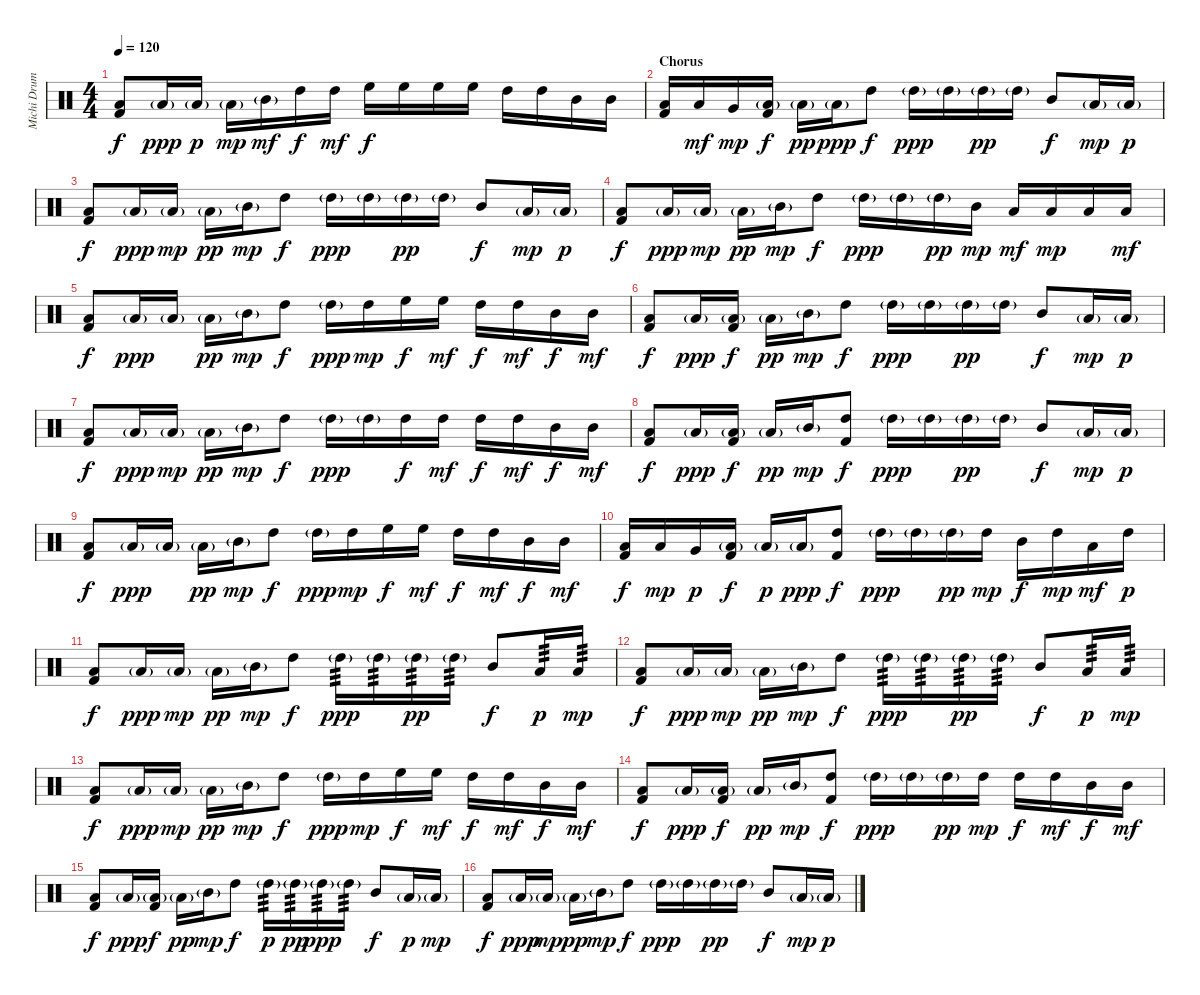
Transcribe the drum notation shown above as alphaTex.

\track ("Michi Drums" "Michi Drum") {instrument percussion}
\staff {score}
\articulation defaults
\ts (4 4)
\tempo 120
\clef neutral
\ks c
("Low Floor Tom (hit)" "Kick (hit) 2").8{dy f} "Low Floor Tom (hit)"{g}.16{dy ppp} "Low Tom (hit)"{g}.16{dy p} "Low Tom (hit)"{g}.16{dy mp} "Mid Tom (hit)"{g}.16{dy mf} "High Tom (hit)".16{dy f} "High Tom (hit)".16{dy mf} "High Floor Tom (hit)".16{dy f} "High Floor Tom (hit)".16 "High Floor Tom (hit)".16 "High Floor Tom (hit)".16 "High Tom (hit)".16 "High Tom (hit)".16 "Mid Tom (hit)".16 "Mid Tom (hit)".16 |
\section ("" "Chorus")
("Low Tom (hit)" "Kick (hit) 2").16 "Low Tom (hit)".16{dy mf} "Very Low Tom (hit)".16{dy mp} ("Low Floor Tom (hit)"{g} "Kick (hit) 2").16{dy f} "Low Floor Tom (hit)"{g}.16{dy pp} "Low Floor Tom (hit)"{g}.16{dy ppp} "High Tom (hit)".8{dy f} "High Tom (hit)"{g}.16{dy ppp} "High Tom (hit)"{g}.16 "High Tom (hit)"{g}.16{dy pp} "High Tom (hit)"{g}.16 "Mid Tom (hit)".8{dy f} "Low Tom (hit)"{g}.16{dy mp} "Low Tom (hit)"{g}.16{dy p} |
("Low Floor Tom (hit)" "Kick (hit) 2").8{dy f} "Low Floor Tom (hit)"{g}.16{dy ppp} "Low Tom (hit)"{g}.16{dy mp} "Low Tom (hit)"{g}.16{dy pp} "Mid Tom (hit)"{g}.16{dy mp} "High Tom (hit)".8{dy f} "High Tom (hit)"{g}.16{dy ppp} "High Tom (hit)"{g}.16 "High Tom (hit)"{g}.16{dy pp} "High Tom (hit)"{g}.16 "Mid Tom (hit)".8{dy f} "Low Tom (hit)"{g}.16{dy mp} "Low Tom (hit)"{g}.16{dy p} |
("Low Floor Tom (hit)" "Kick (hit) 2").8{dy f} "Low Floor Tom (hit)"{g}.16{dy ppp} "Low Tom (hit)"{g}.16{dy mp} "Low Tom (hit)"{g}.16{dy pp} "Mid Tom (hit)"{g}.16{dy mp} "High Tom (hit)".8{dy f} "High Tom (hit)"{g}.16{dy ppp} "High Tom (hit)"{g}.16 "High Tom (hit)"{g}.16{dy pp} "Mid Tom (hit)".16{dy mp} "Low Tom (hit)".16{dy mf} "Low Tom (hit)".16{dy mp} "Low Tom (hit)".16 "Low Tom (hit)".16{dy mf} |
("Low Floor Tom (hit)" "Kick (hit) 2").8{dy f} "Low Floor Tom (hit)"{g}.16{dy ppp} "Low Tom (hit)"{g}.16 "Low Tom (hit)"{g}.16{dy pp} "Mid Tom (hit)"{g}.16{dy mp} "High Tom (hit)".8{dy f} "High Tom (hit)"{g}.16{dy ppp} "High Tom (hit)".16{dy mp} "High Floor Tom (hit)".16{dy f} "High Floor Tom (hit)".16{dy mf} "High Tom (hit)".16{dy f} "High Tom (hit)".16{dy mf} "Mid Tom (hit)".16{dy f} "Mid Tom (hit)".16{dy mf} |
("Low Floor Tom (hit)" "Kick (hit) 2").8{dy f} "Low Floor Tom (hit)"{g}.16{dy ppp} ("Low Tom (hit)"{g} "Kick (hit) 2").16{dy f} "Low Tom (hit)"{g}.16{dy pp} "Mid Tom (hit)"{g}.16{dy mp} "High Tom (hit)".8{dy f} "High Tom (hit)"{g}.16{dy ppp} "High Tom (hit)"{g}.16 "High Tom (hit)"{g}.16{dy pp} "High Tom (hit)"{g}.16 "Mid Tom (hit)".8{dy f} "Low Tom (hit)"{g}.16{dy mp} "Low Tom (hit)"{g}.16{dy p} |
("Low Floor Tom (hit)" "Kick (hit) 2").8{dy f} "Low Floor Tom (hit)"{g}.16{dy ppp} "Low Tom (hit)"{g}.16{dy mp} "Low Tom (hit)"{g}.16{dy pp} "Mid Tom (hit)"{g}.16{dy mp} "High Tom (hit)".8{dy f} "High Tom (hit)"{g}.16{dy ppp} "High Tom (hit)"{g}.16 "High Tom (hit)".16{dy f} "High Tom (hit)".16{dy mf} "High Tom (hit)".16{dy f} "High Tom (hit)".16{dy mf} "Mid Tom (hit)".16{dy f} "Mid Tom (hit)".16{dy mf} |
("Low Floor Tom (hit)" "Kick (hit) 2").8{dy f} "Low Floor Tom (hit)"{g}.16{dy ppp} ("Low Tom (hit)"{g} "Kick (hit) 2").16{dy f} "Low Tom (hit)"{g}.16{dy pp} "Mid Tom (hit)"{g}.16{dy mp} ("High Tom (hit)" "Kick (hit) 2").8{dy f} "High Tom (hit)"{g}.16{dy ppp} "High Tom (hit)"{g}.16 "High Tom (hit)"{g}.16{dy pp} "High Tom (hit)"{g}.16 "Mid Tom (hit)".8{dy f} "Low Tom (hit)"{g}.16{dy mp} "Low Tom (hit)"{g}.16{dy p} |
("Low Floor Tom (hit)" "Kick (hit) 2").8{dy f} "Low Floor Tom (hit)"{g}.16{dy ppp} "Low Tom (hit)"{g}.16 "Low Tom (hit)"{g}.16{dy pp} "Mid Tom (hit)"{g}.16{dy mp} "High Tom (hit)".8{dy f} "High Tom (hit)"{g}.16{dy ppp} "High Tom (hit)".16{dy mp} "High Floor Tom (hit)".16{dy f} "High Floor Tom (hit)".16{dy mf} "High Tom (hit)".16{dy f} "High Tom (hit)".16{dy mf} "Mid Tom (hit)".16{dy f} "Mid Tom (hit)".16{dy mf} |
("Low Tom (hit)" "Kick (hit) 2").16{dy f} "Low Tom (hit)".16{dy mp} "Very Low Tom (hit)".16{dy p} ("Low Floor Tom (hit)"{g} "Kick (hit) 2").16{dy f} "Low Floor Tom (hit)"{g}.16{dy p} "Low Floor Tom (hit)"{g}.16{dy ppp} ("High Tom (hit)" "Kick (hit) 2").8{dy f} "High Tom (hit)"{g}.16{dy ppp} "High Tom (hit)"{g}.16 "High Tom (hit)"{g}.16{dy pp} "High Tom (hit)".16{dy mp} "Mid Tom (hit)".16{dy f} "High Tom (hit)".16{dy mp} "Low Tom (hit)".16{dy mf} "High Tom (hit)".16{dy p} |
("Low Floor Tom (hit)" "Kick (hit) 2").8{dy f} "Low Floor Tom (hit)"{g}.16{dy ppp} "Low Tom (hit)"{g}.16{dy mp} "Low Tom (hit)"{g}.16{dy pp} "Mid Tom (hit)"{g}.16{dy mp} "High Tom (hit)".8{dy f} "High Tom (hit)"{g}.16{tp 3 dy ppp} "High Tom (hit)"{g}.16{tp 3} "High Tom (hit)"{g}.16{tp 3 dy pp} "High Tom (hit)"{g}.16{tp 3} "Mid Tom (hit)".8{dy f} "Low Tom (hit)".16{tp 3 dy p} "Low Tom (hit)".16{tp 3 dy mp} |
("Low Floor Tom (hit)" "Kick (hit) 2").8{dy f} "Low Floor Tom (hit)"{g}.16{dy ppp} "Low Tom (hit)"{g}.16{dy mp} "Low Tom (hit)"{g}.16{dy pp} "Mid Tom (hit)"{g}.16{dy mp} "High Tom (hit)".8{dy f} "High Tom (hit)"{g}.16{tp 3 dy ppp} "High Tom (hit)"{g}.16{tp 3} "High Tom (hit)"{g}.16{tp 3 dy pp} "High Tom (hit)"{g}.16{tp 3} "Mid Tom (hit)".8{dy f} "Low Tom (hit)".16{tp 3 dy p} "Low Tom (hit)".16{tp 3 dy mp} |
("Low Floor Tom (hit)" "Kick (hit) 2").8{dy f} "Low Floor Tom (hit)"{g}.16{dy ppp} "Low Tom (hit)"{g}.16{dy mp} "Low Tom (hit)"{g}.16{dy pp} "Mid Tom (hit)"{g}.16{dy mp} "High Tom (hit)".8{dy f} "High Tom (hit)"{g}.16{dy ppp} "High Tom (hit)".16{dy mp} "High Floor Tom (hit)".16{dy f} "High Floor Tom (hit)".16{dy mf} "High Tom (hit)".16{dy f} "High Tom (hit)".16{dy mf} "Mid Tom (hit)".16{dy f} "Mid Tom (hit)".16{dy mf} |
("Low Floor Tom (hit)" "Kick (hit) 2").8{dy f} "Low Floor Tom (hit)"{g}.16{dy ppp} ("Low Tom (hit)"{g} "Kick (hit) 2").16{dy f} "Low Tom (hit)"{g}.16{dy pp} "Mid Tom (hit)"{g}.16{dy mp} ("High Tom (hit)" "Kick (hit) 2").8{dy f} "High Tom (hit)"{g}.16{dy ppp} "High Tom (hit)"{g}.16 "High Tom (hit)"{g}.16{dy pp} "High Tom (hit)".16{dy mp} "High Tom (hit)".16{dy f} "High Tom (hit)".16{dy mf} "Mid Tom (hit)".16{dy f} "Mid Tom (hit)".16{dy mf} |
("Low Floor Tom (hit)" "Kick (hit) 2").8{dy f} "Low Floor Tom (hit)"{g}.16{dy ppp} ("Low Tom (hit)"{g} "Kick (hit) 2").16{dy f} "Low Tom (hit)"{g}.16{dy pp} "Mid Tom (hit)"{g}.16{dy mp} "High Tom (hit)".8{dy f} "High Tom (hit)"{g}.16{tp 3 dy p} "High Tom (hit)"{g}.16{tp 3 dy pp} "High Tom (hit)"{g}.16{tp 3 dy ppp} "High Tom (hit)"{g}.16{tp 3} "Mid Tom (hit)".8{dy f} "Low Tom (hit)"{g}.16{dy p} "Low Tom (hit)"{g}.16{dy mp} |
("Low Floor Tom (hit)" "Kick (hit) 2").8{dy f} "Low Floor Tom (hit)"{g}.16{dy ppp} "Low Tom (hit)"{g}.16{dy mp} "Low Tom (hit)"{g}.16{dy pp} "Mid Tom (hit)"{g}.16{dy mp} "High Tom (hit)".8{dy f} "High Tom (hit)"{g}.16{dy ppp} "High Tom (hit)"{g}.16 "High Tom (hit)"{g}.16{dy pp} "High Tom (hit)"{g}.16 "Mid Tom (hit)".8{dy f} "Low Tom (hit)"{g}.16{dy mp} "Low Tom (hit)"{g}.16{dy p}
